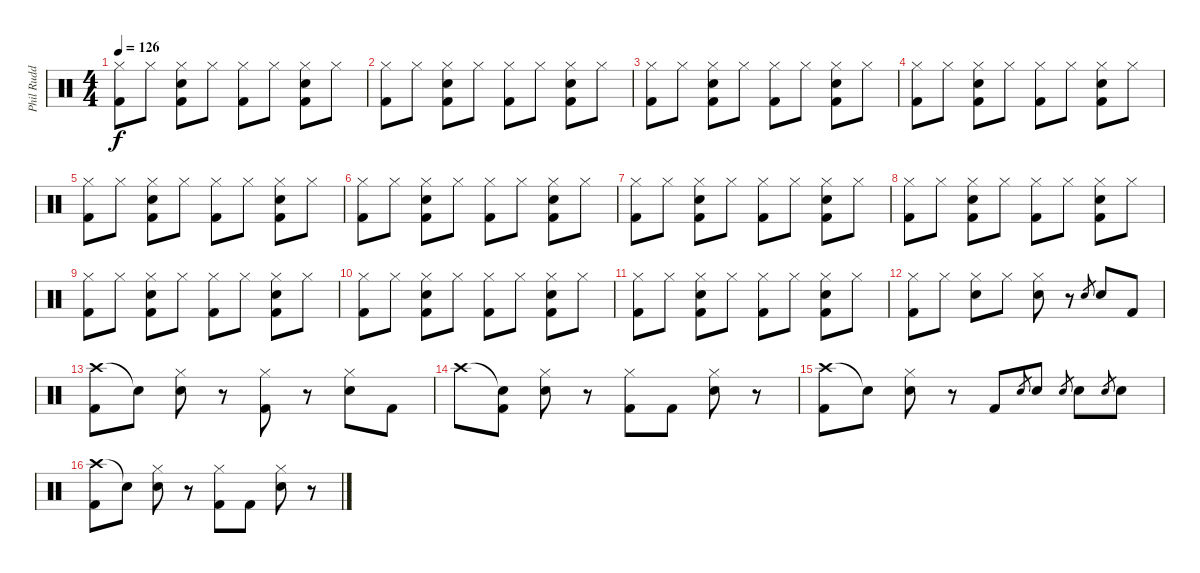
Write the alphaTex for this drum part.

\track ("Phil Rudd" "Phil Rudd") {instrument percussion}
\staff {score}
\articulation defaults
\ts (4 4)
\tempo 126
\clef neutral
\ks c
("Hi-Hat (closed)" "Kick (hit) 2").8{dy f} "Hi-Hat (closed)".8 ("Hi-Hat (closed)" "Snare (hit) 2" "Kick (hit) 2").8 "Hi-Hat (closed)".8 ("Hi-Hat (closed)" "Kick (hit) 2").8 "Hi-Hat (closed)".8 ("Hi-Hat (closed)" "Snare (hit) 2" "Kick (hit) 2").8 "Hi-Hat (closed)".8 |
("Hi-Hat (closed)" "Kick (hit) 2").8 "Hi-Hat (closed)".8 ("Hi-Hat (closed)" "Snare (hit) 2" "Kick (hit) 2").8 "Hi-Hat (closed)".8 ("Hi-Hat (closed)" "Kick (hit) 2").8 "Hi-Hat (closed)".8 ("Hi-Hat (closed)" "Snare (hit) 2" "Kick (hit) 2").8 "Hi-Hat (closed)".8 |
("Hi-Hat (closed)" "Kick (hit) 2").8 "Hi-Hat (closed)".8 ("Hi-Hat (closed)" "Snare (hit) 2" "Kick (hit) 2").8 "Hi-Hat (closed)".8 ("Hi-Hat (closed)" "Kick (hit) 2").8 "Hi-Hat (closed)".8 ("Hi-Hat (closed)" "Snare (hit) 2" "Kick (hit) 2").8 "Hi-Hat (closed)".8 |
("Hi-Hat (closed)" "Kick (hit) 2").8 "Hi-Hat (closed)".8 ("Hi-Hat (closed)" "Snare (hit) 2" "Kick (hit) 2").8 "Hi-Hat (closed)".8 ("Hi-Hat (closed)" "Kick (hit) 2").8 "Hi-Hat (closed)".8 ("Hi-Hat (closed)" "Snare (hit) 2" "Kick (hit) 2").8 "Hi-Hat (closed)".8 |
("Hi-Hat (closed)" "Kick (hit) 2").8 "Hi-Hat (closed)".8 ("Hi-Hat (closed)" "Snare (hit) 2" "Kick (hit) 2").8 "Hi-Hat (closed)".8 ("Hi-Hat (closed)" "Kick (hit) 2").8 "Hi-Hat (closed)".8 ("Hi-Hat (closed)" "Snare (hit) 2" "Kick (hit) 2").8 "Hi-Hat (closed)".8 |
("Hi-Hat (closed)" "Kick (hit) 2").8 "Hi-Hat (closed)".8 ("Hi-Hat (closed)" "Snare (hit) 2" "Kick (hit) 2").8 "Hi-Hat (closed)".8 ("Hi-Hat (closed)" "Kick (hit) 2").8 "Hi-Hat (closed)".8 ("Hi-Hat (closed)" "Snare (hit) 2" "Kick (hit) 2").8 "Hi-Hat (closed)".8 |
("Hi-Hat (closed)" "Kick (hit) 2").8 "Hi-Hat (closed)".8 ("Hi-Hat (closed)" "Snare (hit) 2" "Kick (hit) 2").8 "Hi-Hat (closed)".8 ("Hi-Hat (closed)" "Kick (hit) 2").8 "Hi-Hat (closed)".8 ("Hi-Hat (closed)" "Snare (hit) 2" "Kick (hit) 2").8 "Hi-Hat (closed)".8 |
("Hi-Hat (closed)" "Kick (hit) 2").8 "Hi-Hat (closed)".8 ("Hi-Hat (closed)" "Snare (hit) 2" "Kick (hit) 2").8 "Hi-Hat (closed)".8 ("Hi-Hat (closed)" "Kick (hit) 2").8 "Hi-Hat (closed)".8 ("Hi-Hat (closed)" "Snare (hit) 2" "Kick (hit) 2").8 "Hi-Hat (closed)".8 |
("Hi-Hat (closed)" "Kick (hit) 2").8 "Hi-Hat (closed)".8 ("Hi-Hat (closed)" "Snare (hit) 2" "Kick (hit) 2").8 "Hi-Hat (closed)".8 ("Hi-Hat (closed)" "Kick (hit) 2").8 "Hi-Hat (closed)".8 ("Hi-Hat (closed)" "Snare (hit) 2" "Kick (hit) 2").8 "Hi-Hat (closed)".8 |
("Hi-Hat (closed)" "Kick (hit) 2").8 "Hi-Hat (closed)".8 ("Hi-Hat (closed)" "Snare (hit) 2" "Kick (hit) 2").8 "Hi-Hat (closed)".8 ("Hi-Hat (closed)" "Kick (hit) 2").8 "Hi-Hat (closed)".8 ("Hi-Hat (closed)" "Snare (hit) 2" "Kick (hit) 2").8 "Hi-Hat (closed)".8 |
("Hi-Hat (closed)" "Kick (hit) 2").8 "Hi-Hat (closed)".8 ("Hi-Hat (closed)" "Snare (hit) 2" "Kick (hit) 2").8 "Hi-Hat (closed)".8 ("Hi-Hat (closed)" "Kick (hit) 2").8 "Hi-Hat (closed)".8 ("Hi-Hat (closed)" "Snare (hit) 2" "Kick (hit) 2").8 "Hi-Hat (closed)".8 |
("Hi-Hat (closed)" "Kick (hit) 2").8 "Hi-Hat (closed)".8 ("Hi-Hat (closed)" "Snare (hit) 2").8 "Hi-Hat (closed)".8 ("Hi-Hat (closed)" "Snare (hit) 2").8 r.8 "Snare (hit) 2".8{gr} "Snare (hit) 2".8 "Kick (hit) 2".8 |
("Crash high (hit)" "Kick (hit) 2").8 "Snare (hit)"{t}.8 ("Hi-Hat (closed)" "Snare (hit) 2").8 r.8 ("Hi-Hat (closed)" "Kick (hit) 2").8 r.8 ("Hi-Hat (closed)" "Snare (hit) 2").8 "Kick (hit) 2".8 |
"Crash high (hit)".8 ("Snare (hit)"{t} "Kick (hit) 2").8 ("Hi-Hat (closed)" "Snare (hit) 2").8 r.8 ("Hi-Hat (closed)" "Kick (hit) 2").8 "Kick (hit) 2".8 ("Hi-Hat (closed)" "Snare (hit) 2").8 r.8 |
("Crash high (hit)" "Kick (hit) 2").8 "Snare (hit)"{t}.8 ("Hi-Hat (closed)" "Snare (hit) 2").8 r.8 "Kick (hit) 2".8 "Snare (hit) 2".8{gr} "Snare (hit) 2".8 "Snare (hit) 2".8{gr} "Snare (hit) 2".8 "Snare (hit) 2".8{gr} "Snare (hit) 2".8 |
("Crash high (hit)" "Kick (hit) 2").8 "Snare (hit)"{t}.8 ("Hi-Hat (closed)" "Snare (hit) 2").8 r.8 ("Hi-Hat (closed)" "Kick (hit) 2").8 "Kick (hit) 2".8 ("Hi-Hat (closed)" "Snare (hit) 2").8 r.8
